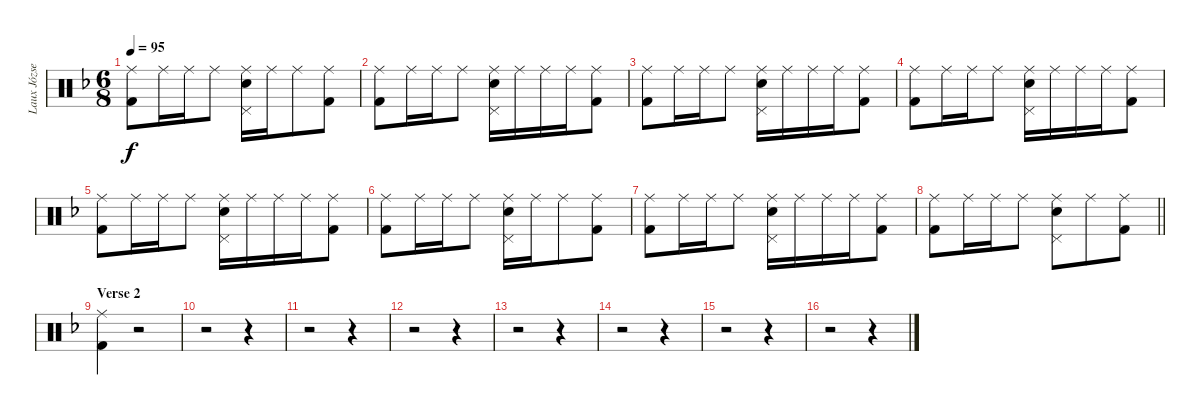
\track ("Laux József" "Laux Józse") {instrument percussion}
\staff {score}
\articulation defaults
\ts (6 8)
\tempo 95
\clef neutral
\ks dminor
("Ride (middle)" "Kick (hit) 2").8{dy f} "Ride (middle)".16 "Ride (middle)".16 "Ride (middle)".8 ("Pedal Hi-Hat (hit)" "Ride (middle)" "Electric Snare (hit)").16 "Ride (middle)".16 "Ride (middle)".8 ("Ride (middle)" "Kick (hit) 2").8 |
("Ride (middle)" "Kick (hit) 2").8 "Ride (middle)".16 "Ride (middle)".16 "Ride (middle)".8 ("Pedal Hi-Hat (hit)" "Ride (middle)" "Electric Snare (hit)").16 "Ride (middle)".16 "Ride (middle)".16 "Ride (middle)".16 ("Ride (middle)" "Kick (hit) 2").8 |
("Ride (middle)" "Kick (hit) 2").8 "Ride (middle)".16 "Ride (middle)".16 "Ride (middle)".8 ("Pedal Hi-Hat (hit)" "Ride (middle)" "Electric Snare (hit)").16 "Ride (middle)".16 "Ride (middle)".16 "Ride (middle)".16 ("Ride (middle)" "Kick (hit) 2").8 |
("Ride (middle)" "Kick (hit) 2").8 "Ride (middle)".16 "Ride (middle)".16 "Ride (middle)".8 ("Pedal Hi-Hat (hit)" "Ride (middle)" "Electric Snare (hit)").16 "Ride (middle)".16 "Ride (middle)".16 "Ride (middle)".16 ("Ride (middle)" "Kick (hit) 2").8 |
("Ride (middle)" "Kick (hit) 2").8 "Ride (middle)".16 "Ride (middle)".16 "Ride (middle)".8 ("Pedal Hi-Hat (hit)" "Ride (middle)" "Electric Snare (hit)").16 "Ride (middle)".16 "Ride (middle)".16 "Ride (middle)".16 ("Ride (middle)" "Kick (hit) 2").8 |
("Ride (middle)" "Kick (hit) 2").8 "Ride (middle)".16 "Ride (middle)".16 "Ride (middle)".8 ("Pedal Hi-Hat (hit)" "Ride (middle)" "Electric Snare (hit)").16 "Ride (middle)".16 "Ride (middle)".8 ("Ride (middle)" "Kick (hit) 2").8 |
("Ride (middle)" "Kick (hit) 2").8 "Ride (middle)".16 "Ride (middle)".16 "Ride (middle)".8 ("Pedal Hi-Hat (hit)" "Ride (middle)" "Electric Snare (hit)").16 "Ride (middle)".16 "Ride (middle)".16 "Ride (middle)".16 ("Ride (middle)" "Kick (hit) 2").8 |
\barLineRight lightlight
("Ride (middle)" "Kick (hit) 2").8 "Ride (middle)".16 "Ride (middle)".16 "Ride (middle)".8 ("Pedal Hi-Hat (hit)" "Ride (middle)" "Electric Snare (hit)").8 "Ride (middle)".8 ("Ride (middle)" "Kick (hit) 2").8 |
\section ("" "Verse 2")
("Ride (middle)" "Kick (hit) 2").4 r.2 |
r.2 r.4 |
r.2 r.4 |
r.2 r.4 |
r.2 r.4 |
r.2 r.4 |
r.2 r.4 |
r.2 r.4
